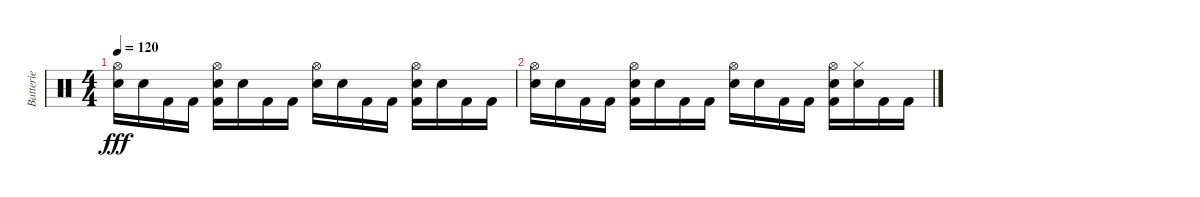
\track ("Batterie" "Batterie") {instrument percussion}
\staff {score}
\articulation defaults
\ts (4 4)
\tempo 120
\clef neutral
\ks c
("Hi-Hat (open)" "Electric Snare (hit)").16{dy fff} "Electric Snare (hit)".16 "Kick (hit) 2".16 "Kick (hit) 2".16 ("Hi-Hat (open)" "Electric Snare (hit)" "Kick (hit) 2").16 "Electric Snare (hit)".16 "Kick (hit) 2".16 "Kick (hit) 2".16 ("Hi-Hat (open)" "Electric Snare (hit)").16 "Electric Snare (hit)".16 "Kick (hit) 2".16 "Kick (hit) 2".16 ("Hi-Hat (open)" "Electric Snare (hit)" "Kick (hit) 2").16 "Electric Snare (hit)".16 "Kick (hit) 2".16 "Kick (hit) 2".16 |
("Hi-Hat (open)" "Electric Snare (hit)").16 "Electric Snare (hit)".16 "Kick (hit) 2".16 "Kick (hit) 2".16 ("Hi-Hat (open)" "Electric Snare (hit)" "Kick (hit) 2").16 "Electric Snare (hit)".16 "Kick (hit) 2".16 "Kick (hit) 2".16 ("Hi-Hat (open)" "Electric Snare (hit)").16 "Electric Snare (hit)".16 "Kick (hit) 2".16 "Kick (hit) 2".16 ("Hi-Hat (open)" "Electric Snare (hit)" "Kick (hit) 2").16 ("Hi-Hat (closed)" "Electric Snare (hit)").16 "Kick (hit) 2".16 "Kick (hit) 2".16
